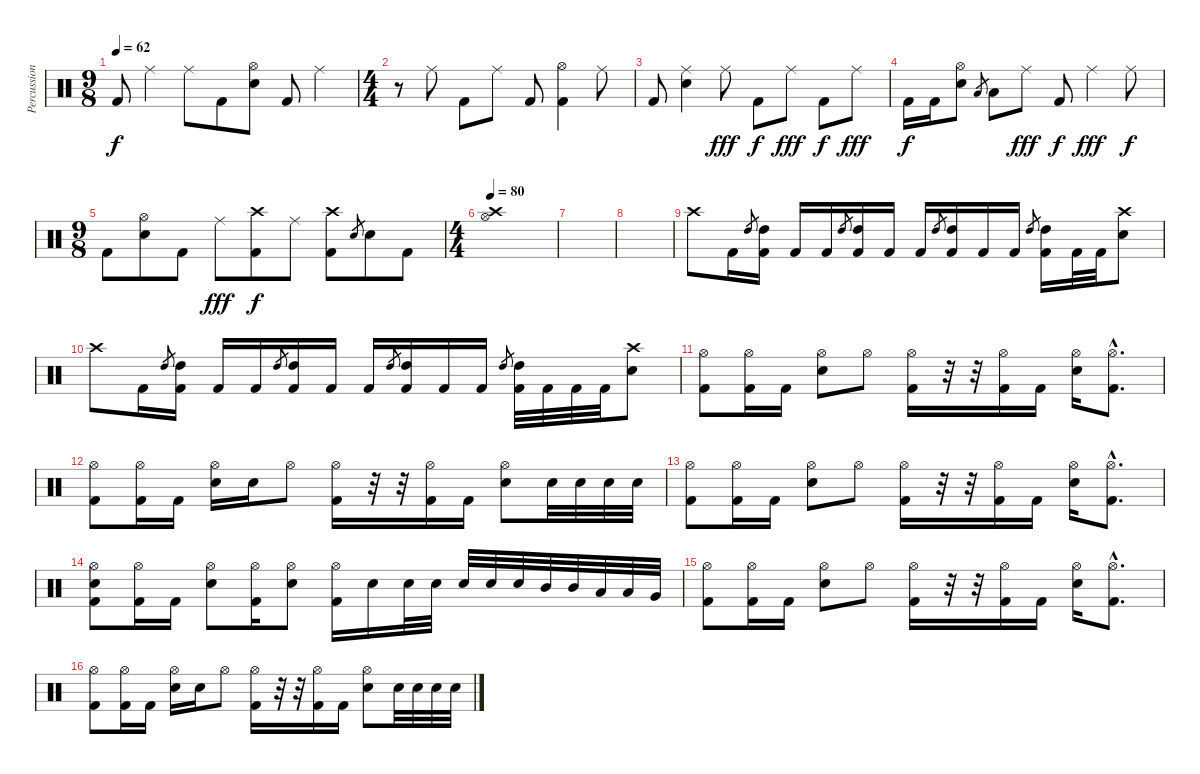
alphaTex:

\track ("Percussion" "Percussion") {instrument percussion}
\staff {score}
\articulation defaults
\ts (9 8)
\tempo 62
\clef neutral
\ks c "Kick (hit) 2".8{dy f} "Ride (middle)".4 "Ride (middle)".8 "Kick (hit) 2".8
("Hi-Hat (open)" "Electric Snare (hit)").8 "Kick (hit) 2".8 "Ride (middle)".4 |
\ts (4 4)
r.8 "Ride (middle)".8 "Kick (hit) 2".8 "Ride (middle)".8 "Kick (hit) 2".8 ("Hi-Hat (open)" "Kick (hit) 2").4 "Ride (middle)".8 |
"Kick (hit) 2".8 ("Ride (middle)" "Electric Snare (hit)").4 "Ride (middle)".8{dy fff} "Kick (hit) 2".8{dy f} "Ride (middle)".8{dy fff} "Kick (hit) 2".8{dy f} "Ride (middle)".8{dy fff} |
"Kick (hit) 2".16{dy f} "Kick (hit) 2".16 ("Hi-Hat (open)" "Electric Snare (hit)").8 "Low Tom (hit)".8{gr} "Low Tom (hit)".8 "Ride (middle)".8{dy fff} "Kick (hit) 2".8{dy f} "Ride (middle)".4{dy fff} "Ride (middle)".8{dy f} |
\ts (9 8)
"Kick (hit) 2".8 ("Hi-Hat (open)" "Electric Snare (hit)").8 "Kick (hit) 2".8 "Ride (middle)".8{dy fff} ("Crash high (hit)" "Kick (hit) 2").8{dy f} "Ride (middle)".8 ("Crash high (hit)" "Kick (hit) 2").8 "Electric Snare (hit)".8{gr} "Electric Snare (hit)".8 "Kick (hit) 2".8 |
\ts (4 4)
\tempo 80
("Crash high (hit)" "Hi-Hat (open)").1 |
|
|
"Crash high (hit)".8 "Kick (hit) 2".16 "High Tom (hit)".8{gr} ("High Tom (hit)" "Kick (hit) 2").16 "Kick (hit) 2".16 "Kick (hit) 2".16 "High Tom (hit)".8{gr} ("High Tom (hit)" "Kick (hit) 2").16 "Kick (hit) 2".16 "Kick (hit) 2".16 "High Tom (hit)".8{gr} ("High Tom (hit)" "Kick (hit) 2").16 "Kick (hit) 2".16 "Kick (hit) 2".16 "High Tom (hit)".8{gr} ("High Tom (hit)" "Kick (hit) 2").16 "Kick (hit) 2".32 "Kick (hit) 2".32 ("Crash high (hit)" "Electric Snare (hit)").8 |
"Crash high (hit)".8 "Kick (hit) 2".16 "High Tom (hit)".8{gr} ("High Tom (hit)" "Kick (hit) 2").16 "Kick (hit) 2".16 "Kick (hit) 2".16 "High Tom (hit)".8{gr} ("High Tom (hit)" "Kick (hit) 2").16 "Kick (hit) 2".16 "Kick (hit) 2".16 "High Tom (hit)".8{gr} ("High Tom (hit)" "Kick (hit) 2").16 "Kick (hit) 2".16 "Kick (hit) 2".16 "High Tom (hit)".8{gr} ("High Tom (hit)" "Kick (hit) 2").32 "Kick (hit) 2".32 "Kick (hit) 2".32 "Kick (hit) 2".32 ("Crash high (hit)" "Electric Snare (hit)").8 |
("Hi-Hat (open)" "Kick (hit) 2").8 ("Hi-Hat (open)" "Kick (hit) 2").16 "Kick (hit) 2".16 ("Hi-Hat (open)" "Electric Snare (hit)").8 "Hi-Hat (open)".8 ("Hi-Hat (open)" "Kick (hit) 2").16 r.32 r.32 ("Hi-Hat (open)" "Kick (hit) 2").16 "Kick (hit) 2".16 ("Hi-Hat (open)" "Electric Snare (hit)").16 ("Hi-Hat (open)"{hac} "Kick (hit) 2"{hac}).8{d} |
("Hi-Hat (open)" "Kick (hit) 2").8 ("Hi-Hat (open)" "Kick (hit) 2").16 "Kick (hit) 2".16 ("Hi-Hat (open)" "Electric Snare (hit)").16 "Electric Snare (hit)".16 "Hi-Hat (open)".8 ("Hi-Hat (open)" "Kick (hit) 2").16 r.32 r.32 ("Hi-Hat (open)" "Kick (hit) 2").16 "Kick (hit) 2".16 ("Hi-Hat (open)" "Electric Snare (hit)").8 "Electric Snare (hit)".32 "Electric Snare (hit)".32 "Electric Snare (hit)".32 "Electric Snare (hit)".32 |
("Hi-Hat (open)" "Kick (hit) 2").8 ("Hi-Hat (open)" "Kick (hit) 2").16 "Kick (hit) 2".16 ("Hi-Hat (open)" "Electric Snare (hit)").8 "Hi-Hat (open)".8 ("Hi-Hat (open)" "Kick (hit) 2").16 r.32 r.32 ("Hi-Hat (open)" "Kick (hit) 2").16 "Kick (hit) 2".16 ("Hi-Hat (open)" "Electric Snare (hit)").16 ("Hi-Hat (open)"{hac} "Kick (hit) 2"{hac}).8{d} |
("Hi-Hat (open)" "Electric Snare (hit)" "Kick (hit) 2").8 ("Hi-Hat (open)" "Kick (hit) 2").16 "Kick (hit) 2".16 ("Hi-Hat (open)" "Electric Snare (hit)").8 ("Hi-Hat (open)" "Kick (hit) 2").16 ("Hi-Hat (open)" "Electric Snare (hit)").8 ("Hi-Hat (open)" "Kick (hit) 2").16 "Electric Snare (hit)".16 "Electric Snare (hit)".32 "Electric Snare (hit)".32 "Electric Snare (hit)".32 "Electric Snare (hit)".32 "Electric Snare (hit)".32 "Mid Tom (hit)".32 "Mid Tom (hit)".32 "Low Tom (hit)".32 "Low Tom (hit)".32 "Very Low Tom (hit)".32 |
("Hi-Hat (open)" "Kick (hit) 2").8 ("Hi-Hat (open)" "Kick (hit) 2").16 "Kick (hit) 2".16 ("Hi-Hat (open)" "Electric Snare (hit)").8 "Hi-Hat (open)".8 ("Hi-Hat (open)" "Kick (hit) 2").16 r.32 r.32 ("Hi-Hat (open)" "Kick (hit) 2").16 "Kick (hit) 2".16 ("Hi-Hat (open)" "Electric Snare (hit)").16 ("Hi-Hat (open)"{hac} "Kick (hit) 2"{hac}).8{d} |
("Hi-Hat (open)" "Kick (hit) 2").8 ("Hi-Hat (open)" "Kick (hit) 2").16 "Kick (hit) 2".16 ("Hi-Hat (open)" "Electric Snare (hit)").16 "Electric Snare (hit)".16 "Hi-Hat (open)".8 ("Hi-Hat (open)" "Kick (hit) 2").16 r.32 r.32 ("Hi-Hat (open)" "Kick (hit) 2").16 "Kick (hit) 2".16 ("Hi-Hat (open)" "Electric Snare (hit)").8 "Electric Snare (hit)".32 "Electric Snare (hit)".32 "Electric Snare (hit)".32 "Electric Snare (hit)".32
